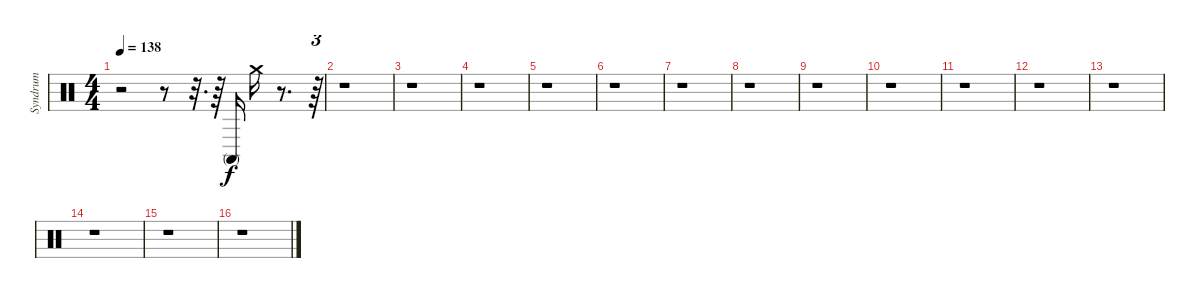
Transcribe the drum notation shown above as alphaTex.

\track ("Syndrum" "Syndrum") {instrument percussion}
\staff {score}
\articulation defaults
\ts (4 4)
\tempo 138
\clef neutral
\ks c
r.2{dy f} r.8 r.32{d} r.64 "Conga high (mute)".16 "Crash medium (hit)".16 r.8{d} r.64{tu (3 2)} |
r.1 |
r.1 |
r.1 |
r.1 |
r.1 |
r.1 |
r.1 |
r.1 |
r.1 |
r.1 |
r.1 |
r.1 |
r.1 |
r.1 |
r.1
